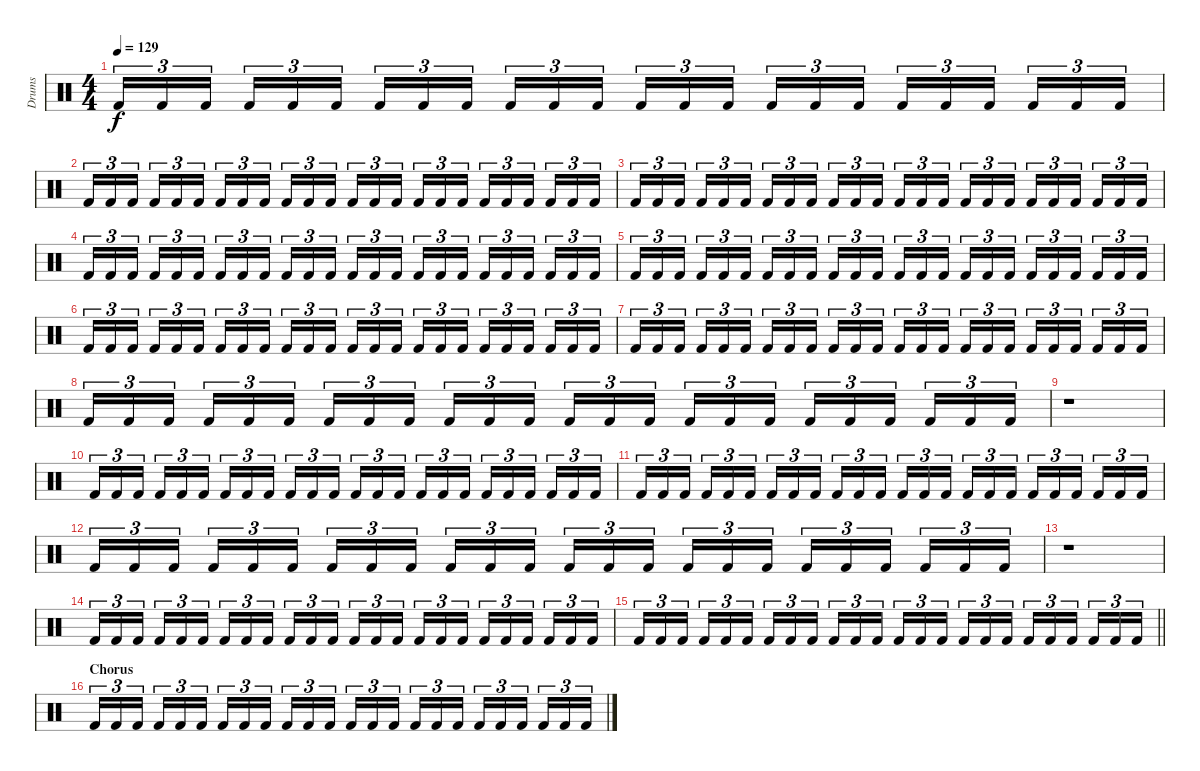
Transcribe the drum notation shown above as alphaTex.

\track ("Drums" "Drums") {instrument percussion}
\staff {score}
\articulation defaults
\ts (4 4)
\tempo 129
\clef neutral
\ks c "Kick (hit) 2".16{tu (3 2) dy f} "Kick (hit) 2".16{tu (3 2)} "Kick (hit) 2".16{tu (3 2) beam splitsecondary} "Kick (hit) 2".16{tu (3 2)} "Kick (hit) 2".16{tu (3 2)} "Kick (hit) 2".16{tu (3 2)} "Kick (hit) 2".16{tu (3 2)} "Kick (hit) 2".16{tu (3 2)} "Kick (hit) 2".16{tu (3 2) beam splitsecondary} "Kick (hit) 2".16{tu (3 2)} "Kick (hit) 2".16{tu (3 2)} "Kick (hit) 2".16{tu (3 2)} "Kick (hit) 2".16{tu (3 2)} "Kick (hit) 2".16{tu (3 2)} "Kick (hit) 2".16{tu (3 2) beam splitsecondary} "Kick (hit) 2".16{tu (3 2)} "Kick (hit) 2".16{tu (3 2)} "Kick (hit) 2".16{tu (3 2)} "Kick (hit) 2".16{tu (3 2)} "Kick (hit) 2".16{tu (3 2)} "Kick (hit) 2".16{tu (3 2) beam splitsecondary} "Kick (hit) 2".16{tu (3 2)} "Kick (hit) 2".16{tu (3 2)} "Kick (hit) 2".16{tu (3 2)}
|
"Kick (hit) 2".16{tu (3 2)} "Kick (hit) 2".16{tu (3 2)} "Kick (hit) 2".16{tu (3 2) beam splitsecondary} "Kick (hit) 2".16{tu (3 2)} "Kick (hit) 2".16{tu (3 2)} "Kick (hit) 2".16{tu (3 2)} "Kick (hit) 2".16{tu (3 2)} "Kick (hit) 2".16{tu (3 2)} "Kick (hit) 2".16{tu (3 2) beam splitsecondary} "Kick (hit) 2".16{tu (3 2)} "Kick (hit) 2".16{tu (3 2)} "Kick (hit) 2".16{tu (3 2)} "Kick (hit) 2".16{tu (3 2)} "Kick (hit) 2".16{tu (3 2)} "Kick (hit) 2".16{tu (3 2) beam splitsecondary} "Kick (hit) 2".16{tu (3 2)} "Kick (hit) 2".16{tu (3 2)} "Kick (hit) 2".16{tu (3 2)} "Kick (hit) 2".16{tu (3 2)} "Kick (hit) 2".16{tu (3 2)} "Kick (hit) 2".16{tu (3 2) beam splitsecondary} "Kick (hit) 2".16{tu (3 2)} "Kick (hit) 2".16{tu (3 2)} "Kick (hit) 2".16{tu (3 2)} |
"Kick (hit) 2".16{tu (3 2)} "Kick (hit) 2".16{tu (3 2)} "Kick (hit) 2".16{tu (3 2) beam splitsecondary} "Kick (hit) 2".16{tu (3 2)} "Kick (hit) 2".16{tu (3 2)} "Kick (hit) 2".16{tu (3 2)} "Kick (hit) 2".16{tu (3 2)} "Kick (hit) 2".16{tu (3 2)} "Kick (hit) 2".16{tu (3 2) beam splitsecondary} "Kick (hit) 2".16{tu (3 2)} "Kick (hit) 2".16{tu (3 2)} "Kick (hit) 2".16{tu (3 2)} "Kick (hit) 2".16{tu (3 2)} "Kick (hit) 2".16{tu (3 2)} "Kick (hit) 2".16{tu (3 2) beam splitsecondary} "Kick (hit) 2".16{tu (3 2)} "Kick (hit) 2".16{tu (3 2)} "Kick (hit) 2".16{tu (3 2)} "Kick (hit) 2".16{tu (3 2)} "Kick (hit) 2".16{tu (3 2)} "Kick (hit) 2".16{tu (3 2) beam splitsecondary} "Kick (hit) 2".16{tu (3 2)} "Kick (hit) 2".16{tu (3 2)} "Kick (hit) 2".16{tu (3 2)} |
"Kick (hit) 2".16{tu (3 2)} "Kick (hit) 2".16{tu (3 2)} "Kick (hit) 2".16{tu (3 2) beam splitsecondary} "Kick (hit) 2".16{tu (3 2)} "Kick (hit) 2".16{tu (3 2)} "Kick (hit) 2".16{tu (3 2)} "Kick (hit) 2".16{tu (3 2)} "Kick (hit) 2".16{tu (3 2)} "Kick (hit) 2".16{tu (3 2) beam splitsecondary} "Kick (hit) 2".16{tu (3 2)} "Kick (hit) 2".16{tu (3 2)} "Kick (hit) 2".16{tu (3 2)} "Kick (hit) 2".16{tu (3 2)} "Kick (hit) 2".16{tu (3 2)} "Kick (hit) 2".16{tu (3 2) beam splitsecondary} "Kick (hit) 2".16{tu (3 2)} "Kick (hit) 2".16{tu (3 2)} "Kick (hit) 2".16{tu (3 2)} "Kick (hit) 2".16{tu (3 2)} "Kick (hit) 2".16{tu (3 2)} "Kick (hit) 2".16{tu (3 2) beam splitsecondary} "Kick (hit) 2".16{tu (3 2)} "Kick (hit) 2".16{tu (3 2)} "Kick (hit) 2".16{tu (3 2)} |
"Kick (hit) 2".16{tu (3 2)} "Kick (hit) 2".16{tu (3 2)} "Kick (hit) 2".16{tu (3 2) beam splitsecondary} "Kick (hit) 2".16{tu (3 2)} "Kick (hit) 2".16{tu (3 2)} "Kick (hit) 2".16{tu (3 2)} "Kick (hit) 2".16{tu (3 2)} "Kick (hit) 2".16{tu (3 2)} "Kick (hit) 2".16{tu (3 2) beam splitsecondary} "Kick (hit) 2".16{tu (3 2)} "Kick (hit) 2".16{tu (3 2)} "Kick (hit) 2".16{tu (3 2)} "Kick (hit) 2".16{tu (3 2)} "Kick (hit) 2".16{tu (3 2)} "Kick (hit) 2".16{tu (3 2) beam splitsecondary} "Kick (hit) 2".16{tu (3 2)} "Kick (hit) 2".16{tu (3 2)} "Kick (hit) 2".16{tu (3 2)} "Kick (hit) 2".16{tu (3 2)} "Kick (hit) 2".16{tu (3 2)} "Kick (hit) 2".16{tu (3 2) beam splitsecondary} "Kick (hit) 2".16{tu (3 2)} "Kick (hit) 2".16{tu (3 2)} "Kick (hit) 2".16{tu (3 2)} |
"Kick (hit) 2".16{tu (3 2)} "Kick (hit) 2".16{tu (3 2)} "Kick (hit) 2".16{tu (3 2) beam splitsecondary} "Kick (hit) 2".16{tu (3 2)} "Kick (hit) 2".16{tu (3 2)} "Kick (hit) 2".16{tu (3 2)} "Kick (hit) 2".16{tu (3 2)} "Kick (hit) 2".16{tu (3 2)} "Kick (hit) 2".16{tu (3 2) beam splitsecondary} "Kick (hit) 2".16{tu (3 2)} "Kick (hit) 2".16{tu (3 2)} "Kick (hit) 2".16{tu (3 2)} "Kick (hit) 2".16{tu (3 2)} "Kick (hit) 2".16{tu (3 2)} "Kick (hit) 2".16{tu (3 2) beam splitsecondary} "Kick (hit) 2".16{tu (3 2)} "Kick (hit) 2".16{tu (3 2)} "Kick (hit) 2".16{tu (3 2)} "Kick (hit) 2".16{tu (3 2)} "Kick (hit) 2".16{tu (3 2)} "Kick (hit) 2".16{tu (3 2) beam splitsecondary} "Kick (hit) 2".16{tu (3 2)} "Kick (hit) 2".16{tu (3 2)} "Kick (hit) 2".16{tu (3 2)} |
"Kick (hit) 2".16{tu (3 2)} "Kick (hit) 2".16{tu (3 2)} "Kick (hit) 2".16{tu (3 2) beam splitsecondary} "Kick (hit) 2".16{tu (3 2)} "Kick (hit) 2".16{tu (3 2)} "Kick (hit) 2".16{tu (3 2)} "Kick (hit) 2".16{tu (3 2)} "Kick (hit) 2".16{tu (3 2)} "Kick (hit) 2".16{tu (3 2) beam splitsecondary} "Kick (hit) 2".16{tu (3 2)} "Kick (hit) 2".16{tu (3 2)} "Kick (hit) 2".16{tu (3 2)} "Kick (hit) 2".16{tu (3 2)} "Kick (hit) 2".16{tu (3 2)} "Kick (hit) 2".16{tu (3 2) beam splitsecondary} "Kick (hit) 2".16{tu (3 2)} "Kick (hit) 2".16{tu (3 2)} "Kick (hit) 2".16{tu (3 2)} "Kick (hit) 2".16{tu (3 2)} "Kick (hit) 2".16{tu (3 2)} "Kick (hit) 2".16{tu (3 2) beam splitsecondary} "Kick (hit) 2".16{tu (3 2)} "Kick (hit) 2".16{tu (3 2)} "Kick (hit) 2".16{tu (3 2)} |
"Kick (hit) 2".16{tu (3 2)} "Kick (hit) 2".16{tu (3 2)} "Kick (hit) 2".16{tu (3 2) beam splitsecondary} "Kick (hit) 2".16{tu (3 2)} "Kick (hit) 2".16{tu (3 2)} "Kick (hit) 2".16{tu (3 2)} "Kick (hit) 2".16{tu (3 2)} "Kick (hit) 2".16{tu (3 2)} "Kick (hit) 2".16{tu (3 2) beam splitsecondary} "Kick (hit) 2".16{tu (3 2)} "Kick (hit) 2".16{tu (3 2)} "Kick (hit) 2".16{tu (3 2)} "Kick (hit) 2".16{tu (3 2)} "Kick (hit) 2".16{tu (3 2)} "Kick (hit) 2".16{tu (3 2) beam splitsecondary} "Kick (hit) 2".16{tu (3 2)} "Kick (hit) 2".16{tu (3 2)} "Kick (hit) 2".16{tu (3 2)} "Kick (hit) 2".16{tu (3 2)} "Kick (hit) 2".16{tu (3 2)} "Kick (hit) 2".16{tu (3 2) beam splitsecondary} "Kick (hit) 2".16{tu (3 2)} "Kick (hit) 2".16{tu (3 2)} "Kick (hit) 2".16{tu (3 2)} |
r.1 |
"Kick (hit) 2".16{tu (3 2)} "Kick (hit) 2".16{tu (3 2)} "Kick (hit) 2".16{tu (3 2) beam splitsecondary} "Kick (hit) 2".16{tu (3 2)} "Kick (hit) 2".16{tu (3 2)} "Kick (hit) 2".16{tu (3 2)} "Kick (hit) 2".16{tu (3 2)} "Kick (hit) 2".16{tu (3 2)} "Kick (hit) 2".16{tu (3 2) beam splitsecondary} "Kick (hit) 2".16{tu (3 2)} "Kick (hit) 2".16{tu (3 2)} "Kick (hit) 2".16{tu (3 2)} "Kick (hit) 2".16{tu (3 2)} "Kick (hit) 2".16{tu (3 2)} "Kick (hit) 2".16{tu (3 2) beam splitsecondary} "Kick (hit) 2".16{tu (3 2)} "Kick (hit) 2".16{tu (3 2)} "Kick (hit) 2".16{tu (3 2)} "Kick (hit) 2".16{tu (3 2)} "Kick (hit) 2".16{tu (3 2)} "Kick (hit) 2".16{tu (3 2) beam splitsecondary} "Kick (hit) 2".16{tu (3 2)} "Kick (hit) 2".16{tu (3 2)} "Kick (hit) 2".16{tu (3 2)} |
"Kick (hit) 2".16{tu (3 2)} "Kick (hit) 2".16{tu (3 2)} "Kick (hit) 2".16{tu (3 2) beam splitsecondary} "Kick (hit) 2".16{tu (3 2)} "Kick (hit) 2".16{tu (3 2)} "Kick (hit) 2".16{tu (3 2)} "Kick (hit) 2".16{tu (3 2)} "Kick (hit) 2".16{tu (3 2)} "Kick (hit) 2".16{tu (3 2) beam splitsecondary} "Kick (hit) 2".16{tu (3 2)} "Kick (hit) 2".16{tu (3 2)} "Kick (hit) 2".16{tu (3 2)} "Kick (hit) 2".16{tu (3 2)} "Kick (hit) 2".16{tu (3 2)} "Kick (hit) 2".16{tu (3 2) beam splitsecondary} "Kick (hit) 2".16{tu (3 2)} "Kick (hit) 2".16{tu (3 2)} "Kick (hit) 2".16{tu (3 2)} "Kick (hit) 2".16{tu (3 2)} "Kick (hit) 2".16{tu (3 2)} "Kick (hit) 2".16{tu (3 2) beam splitsecondary} "Kick (hit) 2".16{tu (3 2)} "Kick (hit) 2".16{tu (3 2)} "Kick (hit) 2".16{tu (3 2)} |
"Kick (hit) 2".16{tu (3 2)} "Kick (hit) 2".16{tu (3 2)} "Kick (hit) 2".16{tu (3 2) beam splitsecondary} "Kick (hit) 2".16{tu (3 2)} "Kick (hit) 2".16{tu (3 2)} "Kick (hit) 2".16{tu (3 2)} "Kick (hit) 2".16{tu (3 2)} "Kick (hit) 2".16{tu (3 2)} "Kick (hit) 2".16{tu (3 2) beam splitsecondary} "Kick (hit) 2".16{tu (3 2)} "Kick (hit) 2".16{tu (3 2)} "Kick (hit) 2".16{tu (3 2)} "Kick (hit) 2".16{tu (3 2)} "Kick (hit) 2".16{tu (3 2)} "Kick (hit) 2".16{tu (3 2) beam splitsecondary} "Kick (hit) 2".16{tu (3 2)} "Kick (hit) 2".16{tu (3 2)} "Kick (hit) 2".16{tu (3 2)} "Kick (hit) 2".16{tu (3 2)} "Kick (hit) 2".16{tu (3 2)} "Kick (hit) 2".16{tu (3 2) beam splitsecondary} "Kick (hit) 2".16{tu (3 2)} "Kick (hit) 2".16{tu (3 2)} "Kick (hit) 2".16{tu (3 2)} |
r.1 |
"Kick (hit) 2".16{tu (3 2)} "Kick (hit) 2".16{tu (3 2)} "Kick (hit) 2".16{tu (3 2) beam splitsecondary} "Kick (hit) 2".16{tu (3 2)} "Kick (hit) 2".16{tu (3 2)} "Kick (hit) 2".16{tu (3 2)} "Kick (hit) 2".16{tu (3 2)} "Kick (hit) 2".16{tu (3 2)} "Kick (hit) 2".16{tu (3 2) beam splitsecondary} "Kick (hit) 2".16{tu (3 2)} "Kick (hit) 2".16{tu (3 2)} "Kick (hit) 2".16{tu (3 2)} "Kick (hit) 2".16{tu (3 2)} "Kick (hit) 2".16{tu (3 2)} "Kick (hit) 2".16{tu (3 2) beam splitsecondary} "Kick (hit) 2".16{tu (3 2)} "Kick (hit) 2".16{tu (3 2)} "Kick (hit) 2".16{tu (3 2)} "Kick (hit) 2".16{tu (3 2)} "Kick (hit) 2".16{tu (3 2)} "Kick (hit) 2".16{tu (3 2) beam splitsecondary} "Kick (hit) 2".16{tu (3 2)} "Kick (hit) 2".16{tu (3 2)} "Kick (hit) 2".16{tu (3 2)} |
\barLineRight lightlight "Kick (hit) 2".16{tu (3 2)} "Kick (hit) 2".16{tu (3 2)} "Kick (hit) 2".16{tu (3 2) beam splitsecondary} "Kick (hit) 2".16{tu (3 2)} "Kick (hit) 2".16{tu (3 2)} "Kick (hit) 2".16{tu (3 2)} "Kick (hit) 2".16{tu (3 2)} "Kick (hit) 2".16{tu (3 2)} "Kick (hit) 2".16{tu (3 2) beam splitsecondary} "Kick (hit) 2".16{tu (3 2)} "Kick (hit) 2".16{tu (3 2)} "Kick (hit) 2".16{tu (3 2)} "Kick (hit) 2".16{tu (3 2)} "Kick (hit) 2".16{tu (3 2)} "Kick (hit) 2".16{tu (3 2) beam splitsecondary} "Kick (hit) 2".16{tu (3 2)} "Kick (hit) 2".16{tu (3 2)} "Kick (hit) 2".16{tu (3 2)} "Kick (hit) 2".16{tu (3 2)} "Kick (hit) 2".16{tu (3 2)} "Kick (hit) 2".16{tu (3 2) beam splitsecondary} "Kick (hit) 2".16{tu (3 2)} "Kick (hit) 2".16{tu (3 2)} "Kick (hit) 2".16{tu (3 2)}
|
\section ("" "Chorus")
"Kick (hit) 2".16{tu (3 2)} "Kick (hit) 2".16{tu (3 2)} "Kick (hit) 2".16{tu (3 2) beam splitsecondary} "Kick (hit) 2".16{tu (3 2)} "Kick (hit) 2".16{tu (3 2)} "Kick (hit) 2".16{tu (3 2)} "Kick (hit) 2".16{tu (3 2)} "Kick (hit) 2".16{tu (3 2)} "Kick (hit) 2".16{tu (3 2) beam splitsecondary} "Kick (hit) 2".16{tu (3 2)} "Kick (hit) 2".16{tu (3 2)} "Kick (hit) 2".16{tu (3 2)} "Kick (hit) 2".16{tu (3 2)} "Kick (hit) 2".16{tu (3 2)} "Kick (hit) 2".16{tu (3 2) beam splitsecondary} "Kick (hit) 2".16{tu (3 2)} "Kick (hit) 2".16{tu (3 2)} "Kick (hit) 2".16{tu (3 2)} "Kick (hit) 2".16{tu (3 2)} "Kick (hit) 2".16{tu (3 2)} "Kick (hit) 2".16{tu (3 2) beam splitsecondary} "Kick (hit) 2".16{tu (3 2)} "Kick (hit) 2".16{tu (3 2)} "Kick (hit) 2".16{tu (3 2)}
